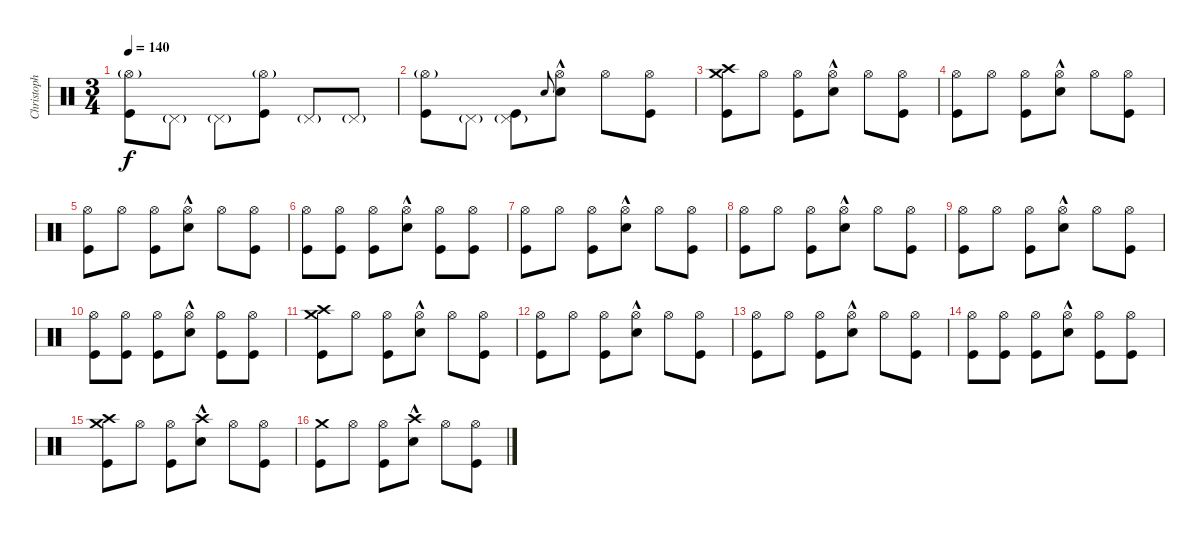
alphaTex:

\track ("Christoph \"Doom\" Schneider" "Christoph ") {instrument percussion}
\staff {score}
\articulation defaults
\ts (3 4)
\tempo 140
\clef neutral
\ks c
("Hi-Hat (open)"{g} "Kick (hit)").8{dy f} "Pedal Hi-Hat (hit)"{g}.8 "Pedal Hi-Hat (hit)"{g}.8 ("Hi-Hat (open)"{g} "Kick (hit)").8 "Pedal Hi-Hat (hit)"{g}.8 "Pedal Hi-Hat (hit)"{g}.8 |
("Hi-Hat (open)"{g} "Kick (hit)").8 "Pedal Hi-Hat (hit)"{g}.8 ("Pedal Hi-Hat (hit)"{g} "Kick (hit)").8 "Snare (hit)".8{gr onbeat} ("Hi-Hat (open)" "Snare (hit) 2"{hac}).8 "Hi-Hat (open)".8 ("Hi-Hat (open)" "Kick (hit)").8 |
("Crash high (hit)" "Kick (hit)" "Crash medium (hit)").8 "Hi-Hat (open)".8 ("Hi-Hat (open)" "Kick (hit)").8 ("Hi-Hat (open)" "Snare (hit) 2"{hac}).8 "Hi-Hat (open)".8 ("Hi-Hat (open)" "Kick (hit)").8 |
("Hi-Hat (open)" "Kick (hit)").8 "Hi-Hat (open)".8 ("Hi-Hat (open)" "Kick (hit)").8 ("Hi-Hat (open)" "Snare (hit) 2"{hac}).8 "Hi-Hat (open)".8 ("Hi-Hat (open)" "Kick (hit)").8 |
("Hi-Hat (open)" "Kick (hit)").8 "Hi-Hat (open)".8 ("Hi-Hat (open)" "Kick (hit)").8 ("Hi-Hat (open)" "Snare (hit) 2"{hac}).8 "Hi-Hat (open)".8 ("Hi-Hat (open)" "Kick (hit)").8 |
("Hi-Hat (open)" "Kick (hit)").8 ("Hi-Hat (open)" "Kick (hit)").8 ("Hi-Hat (open)" "Kick (hit)").8 ("Hi-Hat (open)" "Snare (hit) 2"{hac}).8 ("Hi-Hat (open)" "Kick (hit)").8 ("Hi-Hat (open)" "Kick (hit)").8 |
("Kick (hit)" "Hi-Hat (open)").8 "Hi-Hat (open)".8 ("Hi-Hat (open)" "Kick (hit)").8 ("Hi-Hat (open)" "Snare (hit) 2"{hac}).8 "Hi-Hat (open)".8 ("Hi-Hat (open)" "Kick (hit)").8 |
("Hi-Hat (open)" "Kick (hit)").8 "Hi-Hat (open)".8 ("Hi-Hat (open)" "Kick (hit)").8 ("Hi-Hat (open)" "Snare (hit) 2"{hac}).8 "Hi-Hat (open)".8 ("Hi-Hat (open)" "Kick (hit)").8 |
("Hi-Hat (open)" "Kick (hit)").8 "Hi-Hat (open)".8 ("Hi-Hat (open)" "Kick (hit)").8 ("Hi-Hat (open)" "Snare (hit) 2"{hac}).8 "Hi-Hat (open)".8 ("Hi-Hat (open)" "Kick (hit)").8 |
("Hi-Hat (open)" "Kick (hit)").8 ("Hi-Hat (open)" "Kick (hit)").8 ("Hi-Hat (open)" "Kick (hit)").8 ("Hi-Hat (open)" "Snare (hit) 2"{hac}).8 ("Hi-Hat (open)" "Kick (hit)").8 ("Hi-Hat (open)" "Kick (hit)").8 |
("Crash high (hit)" "Kick (hit)" "Crash medium (hit)").8 "Hi-Hat (open)".8 ("Hi-Hat (open)" "Kick (hit)").8 ("Hi-Hat (open)" "Snare (hit) 2"{hac}).8 "Hi-Hat (open)".8 ("Hi-Hat (open)" "Kick (hit)").8 |
("Hi-Hat (open)" "Kick (hit)").8 "Hi-Hat (open)".8 ("Hi-Hat (open)" "Kick (hit)").8 ("Hi-Hat (open)" "Snare (hit) 2"{hac}).8 "Hi-Hat (open)".8 ("Hi-Hat (open)" "Kick (hit)").8 |
("Hi-Hat (open)" "Kick (hit)").8 "Hi-Hat (open)".8 ("Hi-Hat (open)" "Kick (hit)").8 ("Hi-Hat (open)" "Snare (hit) 2"{hac}).8 "Hi-Hat (open)".8 ("Hi-Hat (open)" "Kick (hit)").8 |
("Hi-Hat (open)" "Kick (hit)").8 ("Hi-Hat (open)" "Kick (hit)").8 ("Hi-Hat (open)" "Kick (hit)").8 ("Hi-Hat (open)" "Snare (hit) 2"{hac}).8 ("Hi-Hat (open)" "Kick (hit)").8 ("Hi-Hat (open)" "Kick (hit)").8 |
("Crash high (hit)" "Kick (hit)" "Crash medium (hit)").8 "Hi-Hat (open)".8 ("Hi-Hat (open)" "Kick (hit)").8 ("Crash high (hit)" "Snare (hit) 2"{hac}).8 "Hi-Hat (open)".8 ("Hi-Hat (open)" "Kick (hit)").8 |
("Crash medium (hit)" "Kick (hit)").8 "Hi-Hat (open)".8 ("Hi-Hat (open)" "Kick (hit)").8 ("Crash high (hit)" "Snare (hit) 2"{hac}).8 "Hi-Hat (open)".8 ("Hi-Hat (open)" "Kick (hit)").8
